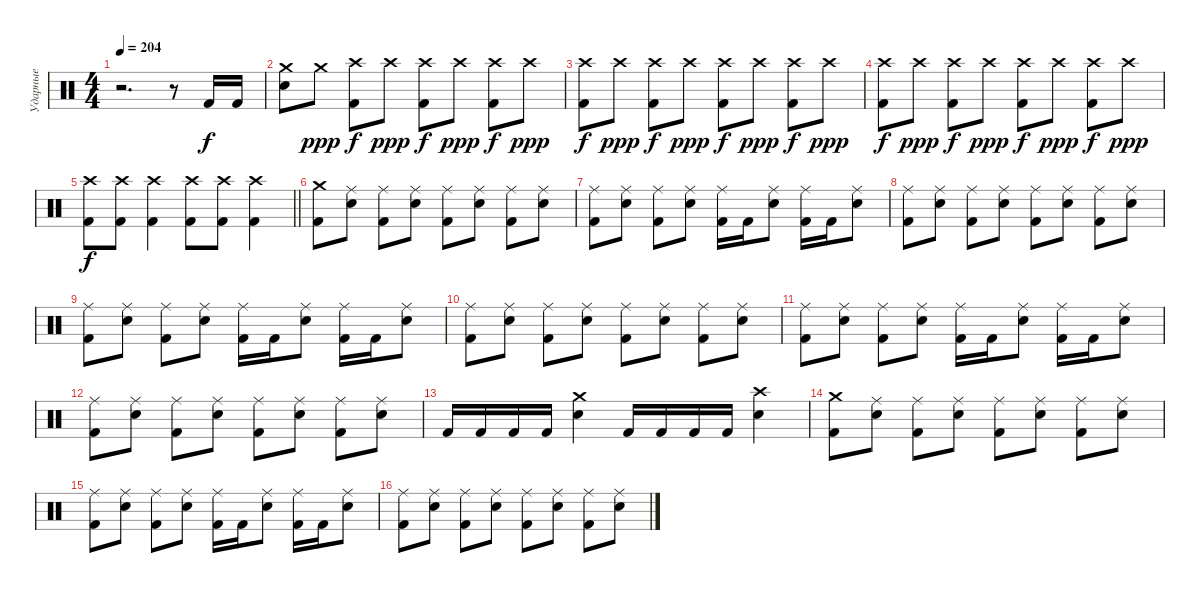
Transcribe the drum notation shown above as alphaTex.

\track ("Ударные" "Ударные") {instrument percussion}
\staff {score}
\articulation defaults
\ts (4 4)
\tempo 204
\clef neutral
\ks c
r.2{d dy ppp} r.8 "Kick (hit) 2".16{dy f} "Kick (hit) 2".16 |
("Crash medium (hit)" "Snare (hit) 2").8 "Crash medium (hit)".8{dy ppp} ("Crash high (hit)" "Kick (hit) 2").8{dy f} "Crash high (hit)".8{dy ppp} ("Crash high (hit)" "Kick (hit) 2").8{dy f} "Crash high (hit)".8{dy ppp} ("Crash high (hit)" "Kick (hit) 2").8{dy f} "Crash high (hit)".8{dy ppp} |
("Crash high (hit)" "Kick (hit) 2").8{dy f} "Crash high (hit)".8{dy ppp} ("Crash high (hit)" "Kick (hit) 2").8{dy f} "Crash high (hit)".8{dy ppp} ("Crash high (hit)" "Kick (hit) 2").8{dy f} "Crash high (hit)".8{dy ppp} ("Crash high (hit)" "Kick (hit) 2").8{dy f} "Crash high (hit)".8{dy ppp} |
("Crash high (hit)" "Kick (hit) 2").8{dy f} "Crash high (hit)".8{dy ppp} ("Crash high (hit)" "Kick (hit) 2").8{dy f} "Crash high (hit)".8{dy ppp} ("Crash high (hit)" "Kick (hit) 2").8{dy f} "Crash high (hit)".8{dy ppp} ("Crash high (hit)" "Kick (hit) 2").8{dy f} "Crash high (hit)".8{dy ppp} |
\barLineRight lightlight
("Crash high (hit)" "Kick (hit) 2").8{dy f} ("Crash high (hit)" "Kick (hit) 2").8 ("Crash high (hit)" "Kick (hit) 2").4 ("Crash high (hit)" "Kick (hit) 2").8 ("Crash high (hit)" "Kick (hit) 2").8 ("Crash high (hit)" "Kick (hit) 2").4 |
("Crash medium (hit)" "Kick (hit) 2").8 ("Ride (middle)" "Snare (hit) 2").8 ("Ride (middle)" "Kick (hit) 2").8 ("Ride (middle)" "Snare (hit) 2").8 ("Ride (middle)" "Kick (hit) 2").8 ("Ride (middle)" "Snare (hit) 2").8 ("Ride (middle)" "Kick (hit) 2").8 ("Ride (middle)" "Snare (hit) 2").8 |
("Ride (middle)" "Kick (hit) 2").8 ("Ride (middle)" "Snare (hit) 2").8 ("Ride (middle)" "Kick (hit) 2").8 ("Ride (middle)" "Snare (hit) 2").8 ("Ride (middle)" "Kick (hit) 2").16 "Kick (hit) 2".16 ("Ride (middle)" "Snare (hit) 2").8 ("Ride (middle)" "Kick (hit) 2").16 "Kick (hit) 2".16 ("Ride (middle)" "Snare (hit) 2").8 |
("Ride (middle)" "Kick (hit) 2").8 ("Ride (middle)" "Snare (hit) 2").8 ("Ride (middle)" "Kick (hit) 2").8 ("Ride (middle)" "Snare (hit) 2").8 ("Ride (middle)" "Kick (hit) 2").8 ("Ride (middle)" "Snare (hit) 2").8 ("Ride (middle)" "Kick (hit) 2").8 ("Ride (middle)" "Snare (hit) 2").8 |
("Ride (middle)" "Kick (hit) 2").8 ("Ride (middle)" "Snare (hit) 2").8 ("Ride (middle)" "Kick (hit) 2").8 ("Ride (middle)" "Snare (hit) 2").8 ("Ride (middle)" "Kick (hit) 2").16 "Kick (hit) 2".16 ("Ride (middle)" "Snare (hit) 2").8 ("Ride (middle)" "Kick (hit) 2").16 "Kick (hit) 2".16 ("Ride (middle)" "Snare (hit) 2").8 |
("Ride (middle)" "Kick (hit) 2").8 ("Ride (middle)" "Snare (hit) 2").8 ("Ride (middle)" "Kick (hit) 2").8 ("Ride (middle)" "Snare (hit) 2").8 ("Ride (middle)" "Kick (hit) 2").8 ("Ride (middle)" "Snare (hit) 2").8 ("Ride (middle)" "Kick (hit) 2").8 ("Ride (middle)" "Snare (hit) 2").8 |
("Ride (middle)" "Kick (hit) 2").8 ("Ride (middle)" "Snare (hit) 2").8 ("Ride (middle)" "Kick (hit) 2").8 ("Ride (middle)" "Snare (hit) 2").8 ("Ride (middle)" "Kick (hit) 2").16 "Kick (hit) 2".16 ("Ride (middle)" "Snare (hit) 2").8 ("Ride (middle)" "Kick (hit) 2").16 "Kick (hit) 2".16 ("Ride (middle)" "Snare (hit) 2").8 |
("Ride (middle)" "Kick (hit) 2").8 ("Ride (middle)" "Snare (hit) 2").8 ("Ride (middle)" "Kick (hit) 2").8 ("Ride (middle)" "Snare (hit) 2").8 ("Ride (middle)" "Kick (hit) 2").8 ("Ride (middle)" "Snare (hit) 2").8 ("Ride (middle)" "Kick (hit) 2").8 ("Ride (middle)" "Snare (hit) 2").8 |
"Kick (hit) 2".16 "Kick (hit) 2".16 "Kick (hit) 2".16 "Kick (hit) 2".16 ("Crash medium (hit)" "Snare (hit) 2").4 "Kick (hit) 2".16 "Kick (hit) 2".16 "Kick (hit) 2".16 "Kick (hit) 2".16 ("Crash high (hit)" "Snare (hit) 2").4 |
("Crash medium (hit)" "Kick (hit) 2").8 ("Ride (middle)" "Snare (hit) 2").8 ("Ride (middle)" "Kick (hit) 2").8 ("Ride (middle)" "Snare (hit) 2").8 ("Ride (middle)" "Kick (hit) 2").8 ("Ride (middle)" "Snare (hit) 2").8 ("Ride (middle)" "Kick (hit) 2").8 ("Ride (middle)" "Snare (hit) 2").8 |
("Ride (middle)" "Kick (hit) 2").8 ("Ride (middle)" "Snare (hit) 2").8 ("Ride (middle)" "Kick (hit) 2").8 ("Ride (middle)" "Snare (hit) 2").8 ("Ride (middle)" "Kick (hit) 2").16 "Kick (hit) 2".16 ("Ride (middle)" "Snare (hit) 2").8 ("Ride (middle)" "Kick (hit) 2").16 "Kick (hit) 2".16 ("Ride (middle)" "Snare (hit) 2").8 |
("Ride (middle)" "Kick (hit) 2").8 ("Ride (middle)" "Snare (hit) 2").8 ("Ride (middle)" "Kick (hit) 2").8 ("Ride (middle)" "Snare (hit) 2").8 ("Ride (middle)" "Kick (hit) 2").8 ("Ride (middle)" "Snare (hit) 2").8 ("Ride (middle)" "Kick (hit) 2").8 ("Ride (middle)" "Snare (hit) 2").8
